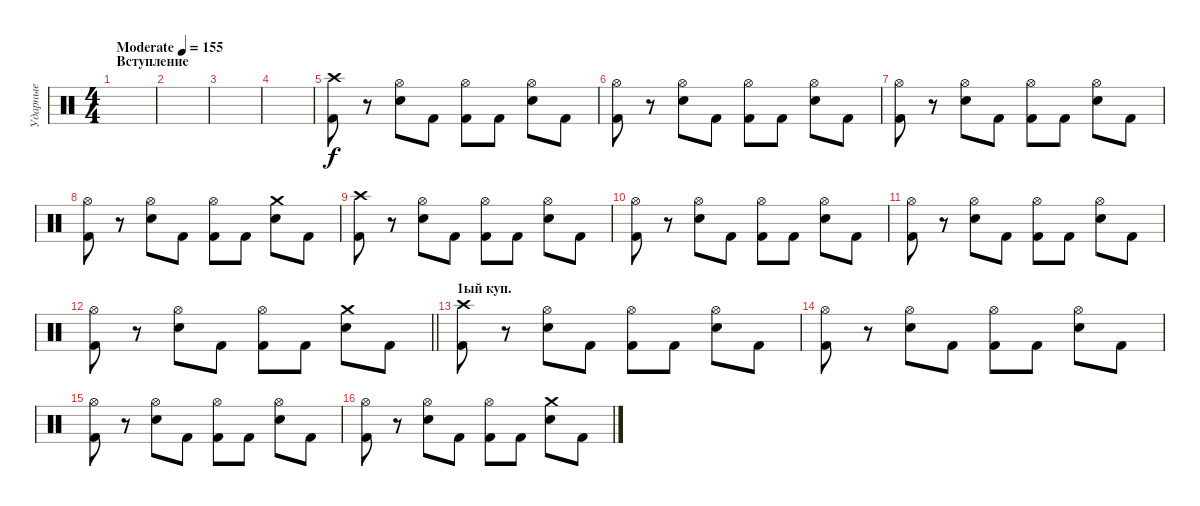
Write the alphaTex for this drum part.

\track ("Ударные" "Ударные") {instrument percussion}
\staff {score}
\articulation defaults
\ts (4 4)
\section ("" "Вступление")
\tempo (155 "Moderate")
\clef neutral
\ks c
|
|
|
|
("Crash high (hit)" "Kick (hit) 2").8 r.8 ("Hi-Hat (open)" "Electric Snare (hit)").8 "Kick (hit) 2".8 ("Hi-Hat (open)" "Kick (hit) 2").8 "Kick (hit) 2".8 ("Hi-Hat (open)" "Electric Snare (hit)").8 "Kick (hit) 2".8 |
("Hi-Hat (open)" "Kick (hit) 2").8 r.8 ("Hi-Hat (open)" "Electric Snare (hit)").8 "Kick (hit) 2".8 ("Hi-Hat (open)" "Kick (hit) 2").8 "Kick (hit) 2".8 ("Hi-Hat (open)" "Electric Snare (hit)").8 "Kick (hit) 2".8 |
("Hi-Hat (open)" "Kick (hit) 2").8 r.8 ("Hi-Hat (open)" "Electric Snare (hit)").8 "Kick (hit) 2".8 ("Hi-Hat (open)" "Kick (hit) 2").8 "Kick (hit) 2".8 ("Hi-Hat (open)" "Electric Snare (hit)").8 "Kick (hit) 2".8 |
("Hi-Hat (open)" "Kick (hit) 2").8 r.8 ("Hi-Hat (open)" "Electric Snare (hit)").8 "Kick (hit) 2".8 ("Hi-Hat (open)" "Kick (hit) 2").8 "Kick (hit) 2".8 ("Crash medium (hit)" "Electric Snare (hit)").8 "Kick (hit) 2".8 |
("Crash high (hit)" "Kick (hit) 2").8 r.8 ("Hi-Hat (open)" "Electric Snare (hit)").8 "Kick (hit) 2".8 ("Hi-Hat (open)" "Kick (hit) 2").8 "Kick (hit) 2".8 ("Hi-Hat (open)" "Electric Snare (hit)").8 "Kick (hit) 2".8 |
("Hi-Hat (open)" "Kick (hit) 2").8 r.8 ("Hi-Hat (open)" "Electric Snare (hit)").8 "Kick (hit) 2".8 ("Hi-Hat (open)" "Kick (hit) 2").8 "Kick (hit) 2".8 ("Hi-Hat (open)" "Electric Snare (hit)").8 "Kick (hit) 2".8 |
("Hi-Hat (open)" "Kick (hit) 2").8 r.8 ("Hi-Hat (open)" "Electric Snare (hit)").8 "Kick (hit) 2".8 ("Hi-Hat (open)" "Kick (hit) 2").8 "Kick (hit) 2".8 ("Hi-Hat (open)" "Electric Snare (hit)").8 "Kick (hit) 2".8 |
\barLineRight lightlight
("Hi-Hat (open)" "Kick (hit) 2").8 r.8 ("Hi-Hat (open)" "Electric Snare (hit)").8 "Kick (hit) 2".8 ("Hi-Hat (open)" "Kick (hit) 2").8 "Kick (hit) 2".8 ("Crash medium (hit)" "Electric Snare (hit)").8 "Kick (hit) 2".8 |
\section ("" "1ый куп.")
("Crash high (hit)" "Kick (hit) 2").8 r.8 ("Hi-Hat (open)" "Electric Snare (hit)").8 "Kick (hit) 2".8 ("Hi-Hat (open)" "Kick (hit) 2").8 "Kick (hit) 2".8 ("Hi-Hat (open)" "Electric Snare (hit)").8 "Kick (hit) 2".8 |
("Hi-Hat (open)" "Kick (hit) 2").8 r.8 ("Hi-Hat (open)" "Electric Snare (hit)").8 "Kick (hit) 2".8 ("Hi-Hat (open)" "Kick (hit) 2").8 "Kick (hit) 2".8 ("Hi-Hat (open)" "Electric Snare (hit)").8 "Kick (hit) 2".8 |
("Hi-Hat (open)" "Kick (hit) 2").8 r.8 ("Hi-Hat (open)" "Electric Snare (hit)").8 "Kick (hit) 2".8 ("Hi-Hat (open)" "Kick (hit) 2").8 "Kick (hit) 2".8 ("Hi-Hat (open)" "Electric Snare (hit)").8 "Kick (hit) 2".8 |
("Hi-Hat (open)" "Kick (hit) 2").8 r.8 ("Hi-Hat (open)" "Electric Snare (hit)").8 "Kick (hit) 2".8 ("Hi-Hat (open)" "Kick (hit) 2").8 "Kick (hit) 2".8 ("Crash medium (hit)" "Electric Snare (hit)").8 "Kick (hit) 2".8
